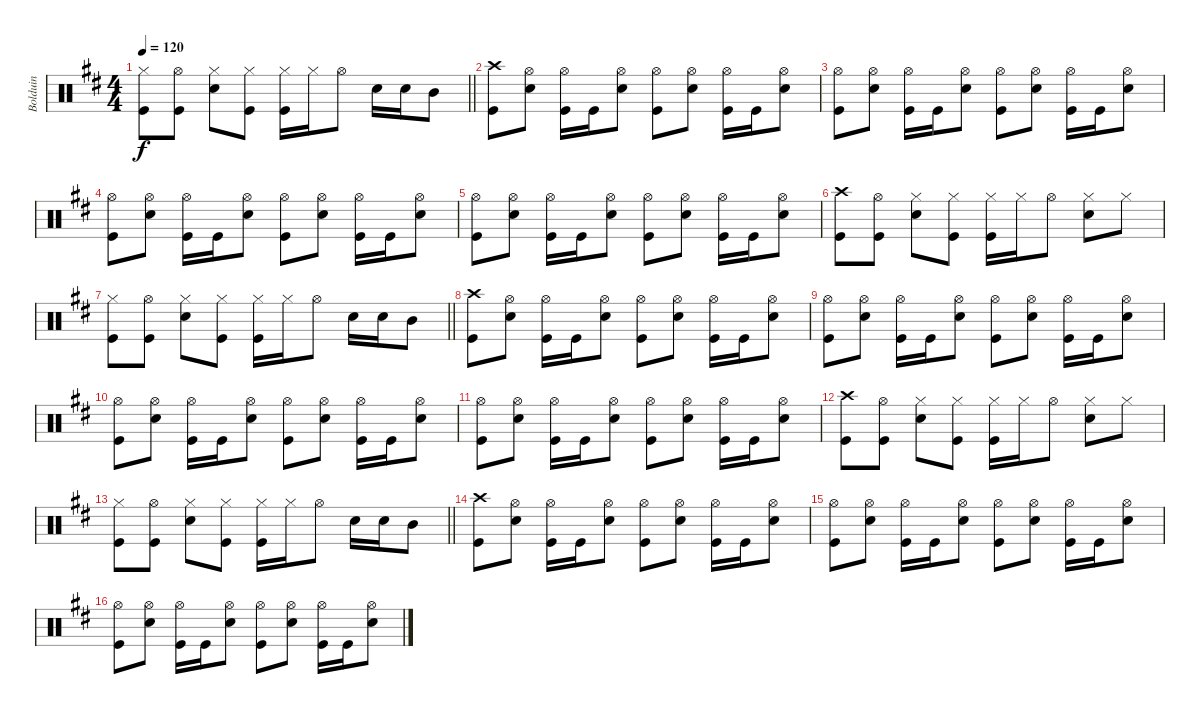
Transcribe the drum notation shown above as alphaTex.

\track ("Bolduin" "Bolduin") {instrument percussion}
\staff {score}
\articulation defaults
\ts (4 4)
\tempo 120
\clef neutral
\barLineRight lightlight
\ks bminor
("Kick (hit)" "Hi-Hat (closed)").8{dy f} ("Hi-Hat (open)" "Kick (hit)").8 ("Hi-Hat (closed)" "Snare (hit) 2").8 ("Hi-Hat (closed)" "Kick (hit)").8 ("Kick (hit)" "Hi-Hat (closed)").16 "Hi-Hat (closed)".16 "Hi-Hat (open)".8 "Snare (hit) 2".16 "Snare (hit) 2".16 "Mid Tom (hit)".8 |
("Kick (hit)" "Crash high (hit)").8 ("Hi-Hat (open)" "Snare (hit) 2").8 ("Hi-Hat (open)" "Kick (hit)").16 "Kick (hit)".16 ("Hi-Hat (open)" "Snare (hit) 2").8 ("Kick (hit)" "Hi-Hat (open)").8 ("Hi-Hat (open)" "Snare (hit) 2").8 ("Kick (hit)" "Hi-Hat (open)").16 "Kick (hit)".16 ("Snare (hit) 2" "Hi-Hat (open)").8 |
("Kick (hit)" "Hi-Hat (open)").8 ("Snare (hit) 2" "Hi-Hat (open)").8 ("Kick (hit)" "Hi-Hat (open)").16 "Kick (hit)".16 ("Snare (hit) 2" "Hi-Hat (open)").8 ("Kick (hit)" "Hi-Hat (open)").8 ("Snare (hit) 2" "Hi-Hat (open)").8 ("Kick (hit)" "Hi-Hat (open)").16 "Kick (hit)".16 ("Hi-Hat (open)" "Snare (hit) 2").8 |
("Kick (hit)" "Hi-Hat (open)").8 ("Snare (hit) 2" "Hi-Hat (open)").8 ("Kick (hit)" "Hi-Hat (open)").16 "Kick (hit)".16 ("Snare (hit) 2" "Hi-Hat (open)").8 ("Kick (hit)" "Hi-Hat (open)").8 ("Snare (hit) 2" "Hi-Hat (open)").8 ("Kick (hit)" "Hi-Hat (open)").16 "Kick (hit)".16 ("Snare (hit) 2" "Hi-Hat (open)").8 |
("Kick (hit)" "Hi-Hat (open)").8 ("Snare (hit) 2" "Hi-Hat (open)").8 ("Kick (hit)" "Hi-Hat (open)").16 "Kick (hit)".16 ("Snare (hit) 2" "Hi-Hat (open)").8 ("Kick (hit)" "Hi-Hat (open)").8 ("Snare (hit) 2" "Hi-Hat (open)").8 ("Kick (hit)" "Hi-Hat (open)").16 "Kick (hit)".16 ("Snare (hit) 2" "Hi-Hat (open)").8 |
("Kick (hit)" "Crash high (hit)").8 ("Hi-Hat (open)" "Kick (hit)").8 ("Hi-Hat (closed)" "Snare (hit) 2").8 ("Hi-Hat (closed)" "Kick (hit)").8 ("Kick (hit)" "Hi-Hat (closed)").16 "Hi-Hat (closed)".16 "Hi-Hat (open)".8 ("Hi-Hat (closed)" "Snare (hit) 2").8 "Hi-Hat (closed)".8 |
\barLineRight lightlight
("Kick (hit)" "Hi-Hat (closed)").8 ("Hi-Hat (open)" "Kick (hit)").8 ("Hi-Hat (closed)" "Snare (hit) 2").8 ("Hi-Hat (closed)" "Kick (hit)").8 ("Kick (hit)" "Hi-Hat (closed)").16 "Hi-Hat (closed)".16 "Hi-Hat (open)".8 "Snare (hit) 2".16 "Snare (hit) 2".16 "Mid Tom (hit)".8 |
("Kick (hit)" "Crash high (hit)").8 ("Snare (hit) 2" "Hi-Hat (open)").8 ("Kick (hit)" "Hi-Hat (open)").16 "Kick (hit)".16 ("Snare (hit) 2" "Hi-Hat (open)").8 ("Kick (hit)" "Hi-Hat (open)").8 ("Snare (hit) 2" "Hi-Hat (open)").8 ("Kick (hit)" "Hi-Hat (open)").16 "Kick (hit)".16 ("Snare (hit) 2" "Hi-Hat (open)").8 |
("Kick (hit)" "Hi-Hat (open)").8 ("Snare (hit) 2" "Hi-Hat (open)").8 ("Kick (hit)" "Hi-Hat (open)").16 "Kick (hit)".16 ("Snare (hit) 2" "Hi-Hat (open)").8 ("Kick (hit)" "Hi-Hat (open)").8 ("Snare (hit) 2" "Hi-Hat (open)").8 ("Kick (hit)" "Hi-Hat (open)").16 "Kick (hit)".16 ("Snare (hit) 2" "Hi-Hat (open)").8 |
("Kick (hit)" "Hi-Hat (open)").8 ("Snare (hit) 2" "Hi-Hat (open)").8 ("Kick (hit)" "Hi-Hat (open)").16 "Kick (hit)".16 ("Snare (hit) 2" "Hi-Hat (open)").8 ("Kick (hit)" "Hi-Hat (open)").8 ("Snare (hit) 2" "Hi-Hat (open)").8 ("Kick (hit)" "Hi-Hat (open)").16 "Kick (hit)".16 ("Snare (hit) 2" "Hi-Hat (open)").8 |
("Kick (hit)" "Hi-Hat (open)").8 ("Snare (hit) 2" "Hi-Hat (open)").8 ("Kick (hit)" "Hi-Hat (open)").16 "Kick (hit)".16 ("Snare (hit) 2" "Hi-Hat (open)").8 ("Kick (hit)" "Hi-Hat (open)").8 ("Snare (hit) 2" "Hi-Hat (open)").8 ("Kick (hit)" "Hi-Hat (open)").16 "Kick (hit)".16 ("Snare (hit) 2" "Hi-Hat (open)").8 |
("Kick (hit)" "Crash high (hit)").8 ("Hi-Hat (open)" "Kick (hit)").8 ("Hi-Hat (closed)" "Snare (hit) 2").8 ("Hi-Hat (closed)" "Kick (hit)").8 ("Kick (hit)" "Hi-Hat (closed)").16 "Hi-Hat (closed)".16 "Hi-Hat (open)".8 ("Hi-Hat (closed)" "Snare (hit) 2").8 "Hi-Hat (closed)".8 |
\barLineRight lightlight
("Kick (hit)" "Hi-Hat (closed)").8 ("Hi-Hat (open)" "Kick (hit)").8 ("Hi-Hat (closed)" "Snare (hit) 2").8 ("Hi-Hat (closed)" "Kick (hit)").8 ("Kick (hit)" "Hi-Hat (closed)").16 "Hi-Hat (closed)".16 "Hi-Hat (open)".8 "Snare (hit) 2".16 "Snare (hit) 2".16 "Mid Tom (hit)".8 |
("Kick (hit)" "Crash high (hit)").8 ("Hi-Hat (open)" "Snare (hit) 2").8 ("Kick (hit)" "Hi-Hat (open)").16 "Kick (hit)".16 ("Snare (hit) 2" "Hi-Hat (open)").8 ("Kick (hit)" "Hi-Hat (open)").8 ("Snare (hit) 2" "Hi-Hat (open)").8 ("Kick (hit)" "Hi-Hat (open)").16 "Kick (hit)".16 ("Snare (hit) 2" "Hi-Hat (open)").8 |
("Kick (hit)" "Hi-Hat (open)").8 ("Snare (hit) 2" "Hi-Hat (open)").8 ("Kick (hit)" "Hi-Hat (open)").16 "Kick (hit)".16 ("Snare (hit) 2" "Hi-Hat (open)").8 ("Kick (hit)" "Hi-Hat (open)").8 ("Snare (hit) 2" "Hi-Hat (open)").8 ("Kick (hit)" "Hi-Hat (open)").16 "Kick (hit)".16 ("Snare (hit) 2" "Hi-Hat (open)").8 |
("Kick (hit)" "Hi-Hat (open)").8 ("Snare (hit) 2" "Hi-Hat (open)").8 ("Kick (hit)" "Hi-Hat (open)").16 "Kick (hit)".16 ("Snare (hit) 2" "Hi-Hat (open)").8 ("Kick (hit)" "Hi-Hat (open)").8 ("Snare (hit) 2" "Hi-Hat (open)").8 ("Kick (hit)" "Hi-Hat (open)").16 "Kick (hit)".16 ("Snare (hit) 2" "Hi-Hat (open)").8
